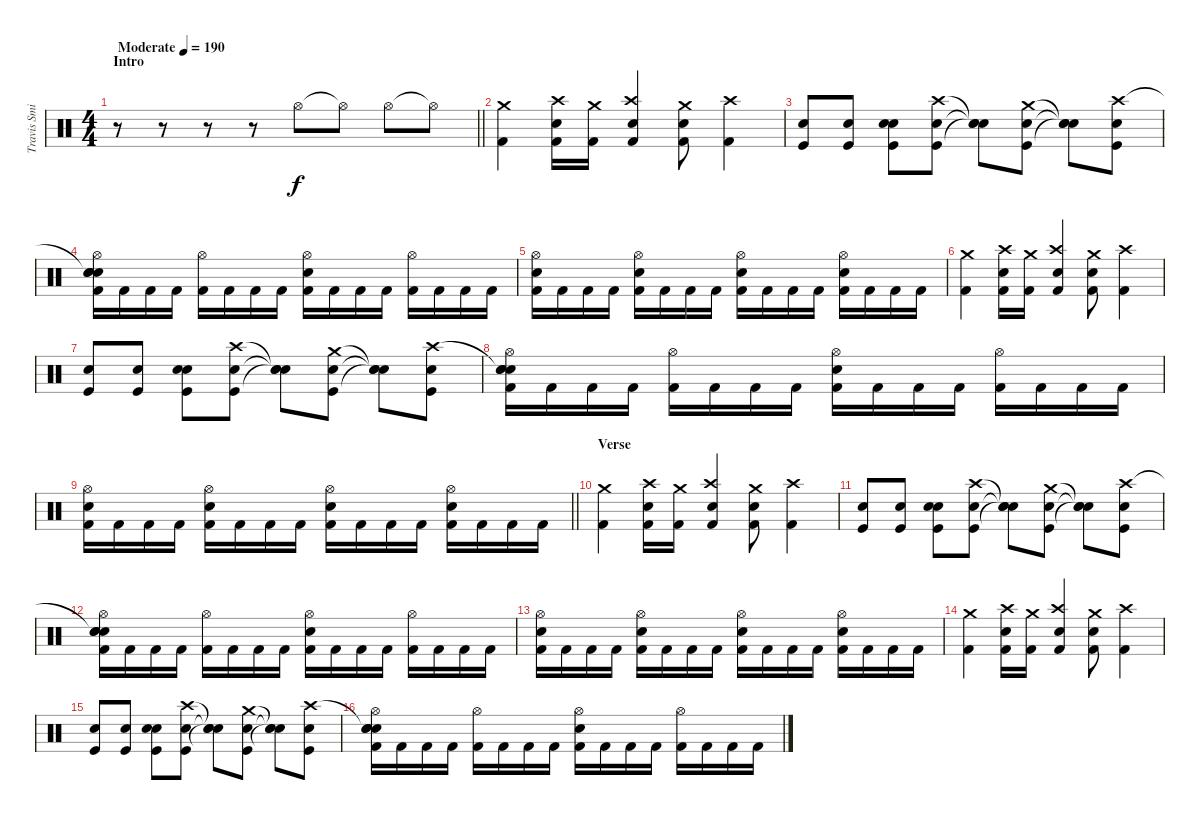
\track ("Travis Smith" "Travis Smi") {instrument percussion}
\staff {score}
\articulation defaults
\ts (4 4)
\section ("" "Intro")
\tempo (190 "Moderate")
\clef neutral
\barLineRight lightlight
\ks c
r.8{dy f} r.8 r.8 r.8 "Hi-Hat (open)".8 "Hi-Hat (open)"{t}.8 "Hi-Hat (open)".8 "Hi-Hat (open)"{t}.8 |
("Crash medium (hit)" "Kick (hit) 2").4 ("Crash high (hit)" "Electric Snare (hit)" "Kick (hit) 2").16 ("Crash medium (hit)" "Kick (hit) 2").16 ("Crash high (hit)" "Electric Snare (hit)" "Kick (hit) 2").4 ("Crash medium (hit)" "Electric Snare (hit)" "Kick (hit) 2").8 ("Crash high (hit)" "Kick (hit) 2").4 |
("Snare (hit) 2" "Kick (hit)").8 ("Snare (hit) 2" "Kick (hit)").8 ("Electric Snare (hit)" "Snare (hit) 2" "Kick (hit)").8 ("Crash high (hit)" "Electric Snare (hit)" "Kick (hit)").8 ("Snare (hit)"{t} "Snare (hit)"{t} "Snare (hit)"{t}).8 ("Crash medium (hit)" "Electric Snare (hit)" "Kick (hit)").8 ("Snare (hit)"{t} "Snare (hit)"{t} "Snare (hit)"{t}).8 ("Crash high (hit)" "Electric Snare (hit)" "Kick (hit)").8 |
("Snare (hit)"{t} "Hi-Hat (open)" "Electric Snare (hit)" "Snare (hit)" "Kick (hit) 2").16 "Kick (hit) 2".16 "Kick (hit) 2".16 "Kick (hit) 2".16 ("Hi-Hat (open)" "Kick (hit) 2").16 "Kick (hit) 2".16 "Kick (hit) 2".16 "Kick (hit) 2".16 ("Hi-Hat (open)" "Electric Snare (hit)" "Kick (hit) 2").16 "Kick (hit) 2".16 "Kick (hit) 2".16 "Kick (hit) 2".16 ("Hi-Hat (open)" "Kick (hit) 2").16 "Kick (hit) 2".16 "Kick (hit) 2".16 "Kick (hit) 2".16 |
("Hi-Hat (open)" "Electric Snare (hit)" "Kick (hit) 2").16 "Kick (hit) 2".16 "Kick (hit) 2".16 "Kick (hit) 2".16 ("Hi-Hat (open)" "Electric Snare (hit)" "Kick (hit) 2").16 "Kick (hit) 2".16 "Kick (hit) 2".16 "Kick (hit) 2".16 ("Hi-Hat (open)" "Electric Snare (hit)" "Kick (hit) 2").16 "Kick (hit) 2".16 "Kick (hit) 2".16 "Kick (hit) 2".16 ("Hi-Hat (open)" "Electric Snare (hit)" "Kick (hit) 2").16 "Kick (hit) 2".16 "Kick (hit) 2".16 "Kick (hit) 2".16 |
("Crash medium (hit)" "Kick (hit) 2").4 ("Crash high (hit)" "Electric Snare (hit)" "Kick (hit) 2").16 ("Crash medium (hit)" "Kick (hit) 2").16 ("Crash high (hit)" "Electric Snare (hit)" "Kick (hit) 2").4 ("Crash medium (hit)" "Electric Snare (hit)" "Kick (hit) 2").8 ("Crash high (hit)" "Kick (hit) 2").4 |
("Snare (hit) 2" "Kick (hit)").8 ("Snare (hit) 2" "Kick (hit)").8 ("Electric Snare (hit)" "Snare (hit) 2" "Kick (hit)").8 ("Crash high (hit)" "Electric Snare (hit)" "Kick (hit)").8 ("Snare (hit)"{t} "Snare (hit)"{t} "Snare (hit)"{t}).8 ("Crash medium (hit)" "Electric Snare (hit)" "Kick (hit)").8 ("Snare (hit)"{t} "Snare (hit)"{t} "Snare (hit)"{t}).8 ("Crash high (hit)" "Electric Snare (hit)" "Kick (hit)").8 |
("Snare (hit)"{t} "Hi-Hat (open)" "Electric Snare (hit)" "Snare (hit)" "Kick (hit) 2").16 "Kick (hit) 2".16 "Kick (hit) 2".16 "Kick (hit) 2".16 ("Hi-Hat (open)" "Kick (hit) 2").16 "Kick (hit) 2".16 "Kick (hit) 2".16 "Kick (hit) 2".16 ("Hi-Hat (open)" "Electric Snare (hit)" "Kick (hit) 2").16 "Kick (hit) 2".16 "Kick (hit) 2".16 "Kick (hit) 2".16 ("Hi-Hat (open)" "Kick (hit) 2").16 "Kick (hit) 2".16 "Kick (hit) 2".16 "Kick (hit) 2".16 |
\barLineRight lightlight
("Hi-Hat (open)" "Electric Snare (hit)" "Kick (hit) 2").16 "Kick (hit) 2".16 "Kick (hit) 2".16 "Kick (hit) 2".16 ("Hi-Hat (open)" "Electric Snare (hit)" "Kick (hit) 2").16 "Kick (hit) 2".16 "Kick (hit) 2".16 "Kick (hit) 2".16 ("Hi-Hat (open)" "Electric Snare (hit)" "Kick (hit) 2").16 "Kick (hit) 2".16 "Kick (hit) 2".16 "Kick (hit) 2".16 ("Hi-Hat (open)" "Electric Snare (hit)" "Kick (hit) 2").16 "Kick (hit) 2".16 "Kick (hit) 2".16 "Kick (hit) 2".16 |
\section ("" "Verse")
("Crash medium (hit)" "Kick (hit) 2").4 ("Crash high (hit)" "Electric Snare (hit)" "Kick (hit) 2").16 ("Crash medium (hit)" "Kick (hit) 2").16 ("Crash high (hit)" "Electric Snare (hit)" "Kick (hit) 2").4 ("Crash medium (hit)" "Electric Snare (hit)" "Kick (hit) 2").8 ("Crash high (hit)" "Kick (hit) 2").4 |
("Snare (hit) 2" "Kick (hit)").8 ("Snare (hit) 2" "Kick (hit)").8 ("Electric Snare (hit)" "Snare (hit) 2" "Kick (hit)").8 ("Crash high (hit)" "Electric Snare (hit)" "Kick (hit)").8 ("Snare (hit)"{t} "Snare (hit)"{t} "Snare (hit)"{t}).8 ("Crash medium (hit)" "Electric Snare (hit)" "Kick (hit)").8 ("Snare (hit)"{t} "Snare (hit)"{t} "Snare (hit)"{t}).8 ("Crash high (hit)" "Electric Snare (hit)" "Kick (hit)").8 |
("Snare (hit)"{t} "Hi-Hat (open)" "Electric Snare (hit)" "Snare (hit)" "Kick (hit) 2").16 "Kick (hit) 2".16 "Kick (hit) 2".16 "Kick (hit) 2".16 ("Hi-Hat (open)" "Kick (hit) 2").16 "Kick (hit) 2".16 "Kick (hit) 2".16 "Kick (hit) 2".16 ("Hi-Hat (open)" "Electric Snare (hit)" "Kick (hit) 2").16 "Kick (hit) 2".16 "Kick (hit) 2".16 "Kick (hit) 2".16 ("Hi-Hat (open)" "Kick (hit) 2").16 "Kick (hit) 2".16 "Kick (hit) 2".16 "Kick (hit) 2".16 |
("Hi-Hat (open)" "Electric Snare (hit)" "Kick (hit) 2").16 "Kick (hit) 2".16 "Kick (hit) 2".16 "Kick (hit) 2".16 ("Hi-Hat (open)" "Electric Snare (hit)" "Kick (hit) 2").16 "Kick (hit) 2".16 "Kick (hit) 2".16 "Kick (hit) 2".16 ("Hi-Hat (open)" "Electric Snare (hit)" "Kick (hit) 2").16 "Kick (hit) 2".16 "Kick (hit) 2".16 "Kick (hit) 2".16 ("Hi-Hat (open)" "Electric Snare (hit)" "Kick (hit) 2").16 "Kick (hit) 2".16 "Kick (hit) 2".16 "Kick (hit) 2".16 |
("Crash medium (hit)" "Kick (hit) 2").4 ("Crash high (hit)" "Electric Snare (hit)" "Kick (hit) 2").16 ("Crash medium (hit)" "Kick (hit) 2").16 ("Crash high (hit)" "Electric Snare (hit)" "Kick (hit) 2").4 ("Crash medium (hit)" "Electric Snare (hit)" "Kick (hit) 2").8 ("Crash high (hit)" "Kick (hit) 2").4 |
("Snare (hit) 2" "Kick (hit)").8 ("Snare (hit) 2" "Kick (hit)").8 ("Electric Snare (hit)" "Snare (hit) 2" "Kick (hit)").8 ("Crash high (hit)" "Electric Snare (hit)" "Kick (hit)").8 ("Snare (hit)"{t} "Snare (hit)"{t} "Snare (hit)"{t}).8 ("Crash medium (hit)" "Electric Snare (hit)" "Kick (hit)").8 ("Snare (hit)"{t} "Snare (hit)"{t} "Snare (hit)"{t}).8 ("Crash high (hit)" "Electric Snare (hit)" "Kick (hit)").8 |
("Snare (hit)"{t} "Hi-Hat (open)" "Electric Snare (hit)" "Snare (hit)" "Kick (hit) 2").16 "Kick (hit) 2".16 "Kick (hit) 2".16 "Kick (hit) 2".16 ("Hi-Hat (open)" "Kick (hit) 2").16 "Kick (hit) 2".16 "Kick (hit) 2".16 "Kick (hit) 2".16 ("Hi-Hat (open)" "Electric Snare (hit)" "Kick (hit) 2").16 "Kick (hit) 2".16 "Kick (hit) 2".16 "Kick (hit) 2".16 ("Hi-Hat (open)" "Kick (hit) 2").16 "Kick (hit) 2".16 "Kick (hit) 2".16 "Kick (hit) 2".16
